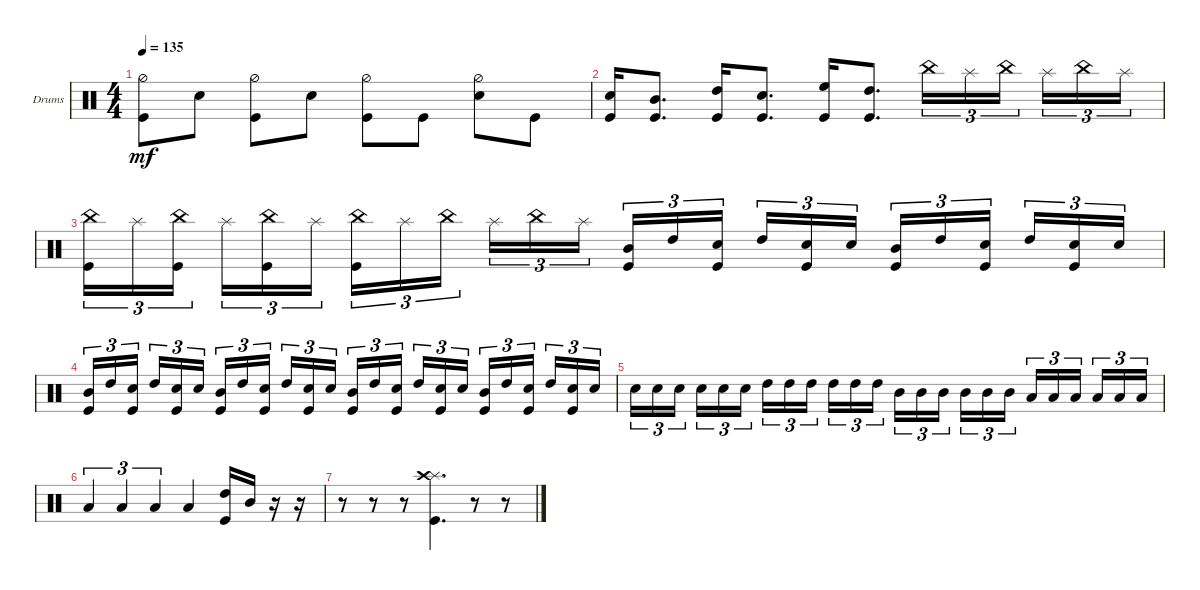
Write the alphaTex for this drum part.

\bracketExtendMode groupsimilarinstruments
\firstSystemTrackNameOrientation horizontal
\otherSystemsTrackNameOrientation horizontal
\track ("Drumkit" "Drums") {instrument percussion}
\staff {score}
\articulation defaults
\ts (4 4)
\tempo 135
\clef neutral
\scale
0.333333
\ks c
("Kick (hit)" "Hi-Hat (half)").8{dy mf} "Snare (hit) 2".8 ("Kick (hit)" "Hi-Hat (half)").8 "Snare (hit) 2".8 ("Kick (hit)" "Hi-Hat (half)").8 "Kick (hit)".8 ("Snare (hit) 2" "Hi-Hat (half)").8 "Kick (hit)".8 |
\scale
0.333333 ("Snare (hit) 2" "Kick (hit)").16 ("Mid Tom (hit)" "Kick (hit)").8{d} ("High Tom (hit)" "Kick (hit)").16 ("Snare (hit) 2" "Kick (hit)").8{d} ("High Floor Tom (hit)" "Kick (hit)").16 ("High Tom (hit)" "Kick (hit)").8{d} "China (hit)".16{tu (3 2)} "Splash (hit)".16{tu (3 2)} "China (hit)".16{tu (3 2)} "Splash (hit)".16{tu (3 2)} "China (hit)".16{tu (3 2)} "Splash (hit)".16{tu (3 2)} |
\scale
0.333333 ("China (hit)" "Kick (hit)").16{tu (3 2)} "Splash (hit)".16{tu (3 2)} ("China (hit)" "Kick (hit)").16{tu (3 2)} "Splash (hit)".16{tu (3 2)} ("China (hit)" "Kick (hit)").16{tu (3 2)} "Splash (hit)".16{tu (3 2)} ("China (hit)" "Kick (hit)").16{tu (3 2)} "Splash (hit)".16{tu (3 2)} "China (hit)".16{tu (3 2)} "Splash (hit)".16{tu (3 2)} "China (hit)".16{tu (3 2)} "Splash (hit)".16{tu (3 2)} ("Mid Tom (hit)" "Kick (hit)").16{tu (3 2)} "High Tom (hit)".16{tu (3 2)} ("Snare (hit) 2" "Kick (hit)").16{tu (3 2)} "High Tom (hit)".16{tu (3 2)} ("Snare (hit) 2" "Kick (hit)").16{tu (3 2)} "Snare (hit) 2".16{tu (3 2)} ("Mid Tom (hit)" "Kick (hit)").16{tu (3 2)} "High Tom (hit)".16{tu (3 2)} ("Snare (hit) 2" "Kick (hit)").16{tu (3 2)} "High Tom (hit)".16{tu (3 2)} ("Snare (hit) 2" "Kick (hit)").16{tu (3 2)} "Snare (hit) 2".16{tu (3 2)} |
\scale
0.333333 ("Mid Tom (hit)" "Kick (hit)").16{tu (3 2)} "High Tom (hit)".16{tu (3 2)} ("Snare (hit) 2" "Kick (hit)").16{tu (3 2)} "High Tom (hit)".16{tu (3 2)} ("Snare (hit) 2" "Kick (hit)").16{tu (3 2)} "Snare (hit) 2".16{tu (3 2)} ("Mid Tom (hit)" "Kick (hit)").16{tu (3 2)} "High Tom (hit)".16{tu (3 2)} ("Snare (hit) 2" "Kick (hit)").16{tu (3 2)} "High Tom (hit)".16{tu (3 2)} ("Snare (hit) 2" "Kick (hit)").16{tu (3 2)} "Snare (hit) 2".16{tu (3 2)} ("Mid Tom (hit)" "Kick (hit)").16{tu (3 2)} "High Tom (hit)".16{tu (3 2)} ("Snare (hit) 2" "Kick (hit)").16{tu (3 2)} "High Tom (hit)".16{tu (3 2)} ("Snare (hit) 2" "Kick (hit)").16{tu (3 2)} "Snare (hit) 2".16{tu (3 2)} ("Mid Tom (hit)" "Kick (hit)").16{tu (3 2)} "High Tom (hit)".16{tu (3 2)} ("Snare (hit) 2" "Kick (hit)").16{tu (3 2)} "High Tom (hit)".16{tu (3 2)} ("Snare (hit) 2" "Kick (hit)").16{tu (3 2)} "Snare (hit) 2".16{tu (3 2)} |
\scale
0.333333 "Snare (hit) 2".16{tu (3 2)} "Snare (hit) 2".16{tu (3 2)} "Snare (hit) 2".16{tu (3 2)} "Snare (hit) 2".16{tu (3 2)} "Snare (hit) 2".16{tu (3 2)} "Snare (hit) 2".16{tu (3 2)} "High Tom (hit)".16{tu (3 2)} "High Tom (hit)".16{tu (3 2)} "High Tom (hit)".16{tu (3 2)} "High Tom (hit)".16{tu (3 2)} "High Tom (hit)".16{tu (3 2)} "High Tom (hit)".16{tu (3 2)} "Mid Tom (hit)".16{tu (3 2)} "Mid Tom (hit)".16{tu (3 2)} "Mid Tom (hit)".16{tu (3 2)} "Mid Tom (hit)".16{tu (3 2)} "Mid Tom (hit)".16{tu (3 2)} "Mid Tom (hit)".16{tu (3 2)} "Low Tom (hit)".16{tu (3 2)} "Low Tom (hit)".16{tu (3 2)} "Low Tom (hit)".16{tu (3 2)} "Low Tom (hit)".16{tu (3 2)} "Low Tom (hit)".16{tu (3 2)} "Low Tom (hit)".16{tu (3 2)} |
\scale
0.333333 "Low Tom (hit)".4{tu (3 2)} "Low Tom (hit)".4{tu (3 2)} "Low Tom (hit)".4{tu (3 2)} "Low Tom (hit)".4 ("High Tom (hit)" "Kick (hit)").16 "Mid Tom (hit)".16 r.16 r.16 |
r.8 r.8 r.8 ("Kick (hit)" "Splash (hit)" "Crash high (hit)").4{d} r.8 r.8
